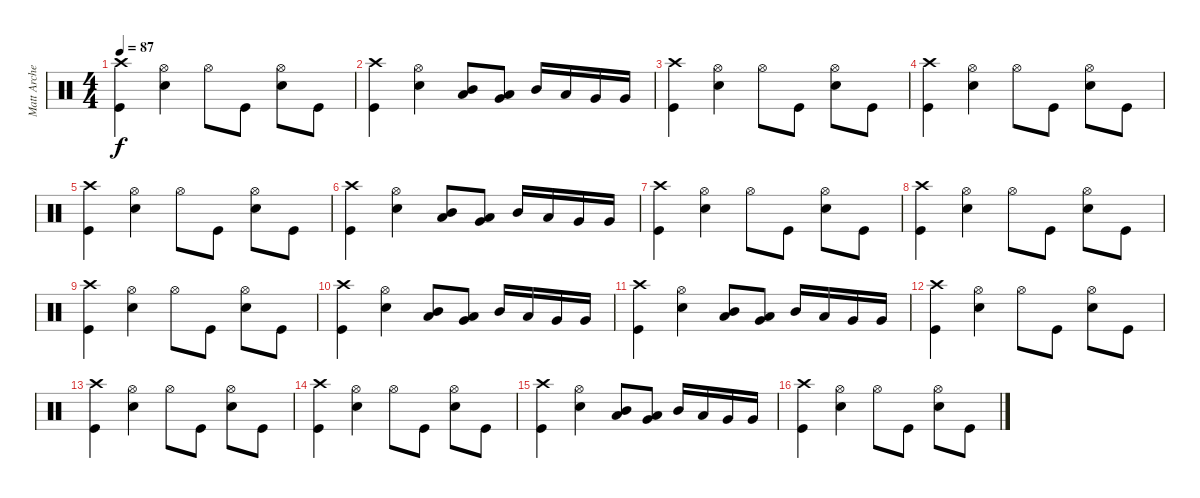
\track ("Matt Archer" "Matt Arche") {instrument percussion}
\staff {score}
\articulation defaults
\ts (4 4)
\tempo 87
\clef neutral
\ks c
("Kick (hit)" "Crash high (hit)").4{dy f} ("Snare (hit) 2" "Hi-Hat (open)").4 "Hi-Hat (open)".8 "Kick (hit)".8 ("Snare (hit) 2" "Hi-Hat (open)").8 "Kick (hit)".8 |
("Kick (hit)" "Crash high (hit)").4 ("Snare (hit) 2" "Hi-Hat (open)").4 ("Mid Tom (hit)" "Low Tom (hit)").8 ("Low Tom (hit)" "Very Low Tom (hit)").8 "Mid Tom (hit)".16 "Low Tom (hit)".16 "Very Low Tom (hit)".16 "Very Low Tom (hit)".16 |
("Kick (hit)" "Crash high (hit)").4 ("Snare (hit) 2" "Hi-Hat (open)").4 "Hi-Hat (open)".8 "Kick (hit)".8 ("Snare (hit) 2" "Hi-Hat (open)").8 "Kick (hit)".8 |
("Kick (hit)" "Crash high (hit)").4 ("Snare (hit) 2" "Hi-Hat (open)").4 "Hi-Hat (open)".8 "Kick (hit)".8 ("Snare (hit) 2" "Hi-Hat (open)").8 "Kick (hit)".8 |
("Kick (hit)" "Crash high (hit)").4 ("Snare (hit) 2" "Hi-Hat (open)").4 "Hi-Hat (open)".8 "Kick (hit)".8 ("Snare (hit) 2" "Hi-Hat (open)").8 "Kick (hit)".8 |
("Kick (hit)" "Crash high (hit)").4 ("Snare (hit) 2" "Hi-Hat (open)").4 ("Mid Tom (hit)" "Low Tom (hit)").8 ("Low Tom (hit)" "Very Low Tom (hit)").8 "Mid Tom (hit)".16 "Low Tom (hit)".16 "Very Low Tom (hit)".16 "Very Low Tom (hit)".16 |
("Kick (hit)" "Crash high (hit)").4 ("Snare (hit) 2" "Hi-Hat (open)").4 "Hi-Hat (open)".8 "Kick (hit)".8 ("Snare (hit) 2" "Hi-Hat (open)").8 "Kick (hit)".8 |
("Kick (hit)" "Crash high (hit)").4 ("Snare (hit) 2" "Hi-Hat (open)").4 "Hi-Hat (open)".8 "Kick (hit)".8 ("Snare (hit) 2" "Hi-Hat (open)").8 "Kick (hit)".8 |
("Kick (hit)" "Crash high (hit)").4 ("Snare (hit) 2" "Hi-Hat (open)").4 "Hi-Hat (open)".8 "Kick (hit)".8 ("Snare (hit) 2" "Hi-Hat (open)").8 "Kick (hit)".8 |
("Kick (hit)" "Crash high (hit)").4 ("Snare (hit) 2" "Hi-Hat (open)").4 ("Mid Tom (hit)" "Low Tom (hit)").8 ("Low Tom (hit)" "Very Low Tom (hit)").8 "Mid Tom (hit)".16 "Low Tom (hit)".16 "Very Low Tom (hit)".16 "Very Low Tom (hit)".16 |
("Kick (hit)" "Crash high (hit)").4 ("Snare (hit) 2" "Hi-Hat (open)").4 ("Mid Tom (hit)" "Low Tom (hit)").8 ("Low Tom (hit)" "Very Low Tom (hit)").8 "Mid Tom (hit)".16 "Low Tom (hit)".16 "Very Low Tom (hit)".16 "Very Low Tom (hit)".16 |
("Kick (hit)" "Crash high (hit)").4 ("Snare (hit) 2" "Hi-Hat (open)").4 "Hi-Hat (open)".8 "Kick (hit)".8 ("Snare (hit) 2" "Hi-Hat (open)").8 "Kick (hit)".8 |
("Kick (hit)" "Crash high (hit)").4 ("Snare (hit) 2" "Hi-Hat (open)").4 "Hi-Hat (open)".8 "Kick (hit)".8 ("Snare (hit) 2" "Hi-Hat (open)").8 "Kick (hit)".8 |
("Kick (hit)" "Crash high (hit)").4 ("Snare (hit) 2" "Hi-Hat (open)").4 "Hi-Hat (open)".8 "Kick (hit)".8 ("Snare (hit) 2" "Hi-Hat (open)").8 "Kick (hit)".8 |
("Kick (hit)" "Crash high (hit)").4 ("Snare (hit) 2" "Hi-Hat (open)").4 ("Mid Tom (hit)" "Low Tom (hit)").8 ("Low Tom (hit)" "Very Low Tom (hit)").8 "Mid Tom (hit)".16 "Low Tom (hit)".16 "Very Low Tom (hit)".16 "Very Low Tom (hit)".16 |
("Kick (hit)" "Crash high (hit)").4 ("Snare (hit) 2" "Hi-Hat (open)").4 "Hi-Hat (open)".8 "Kick (hit)".8 ("Snare (hit) 2" "Hi-Hat (open)").8 "Kick (hit)".8
